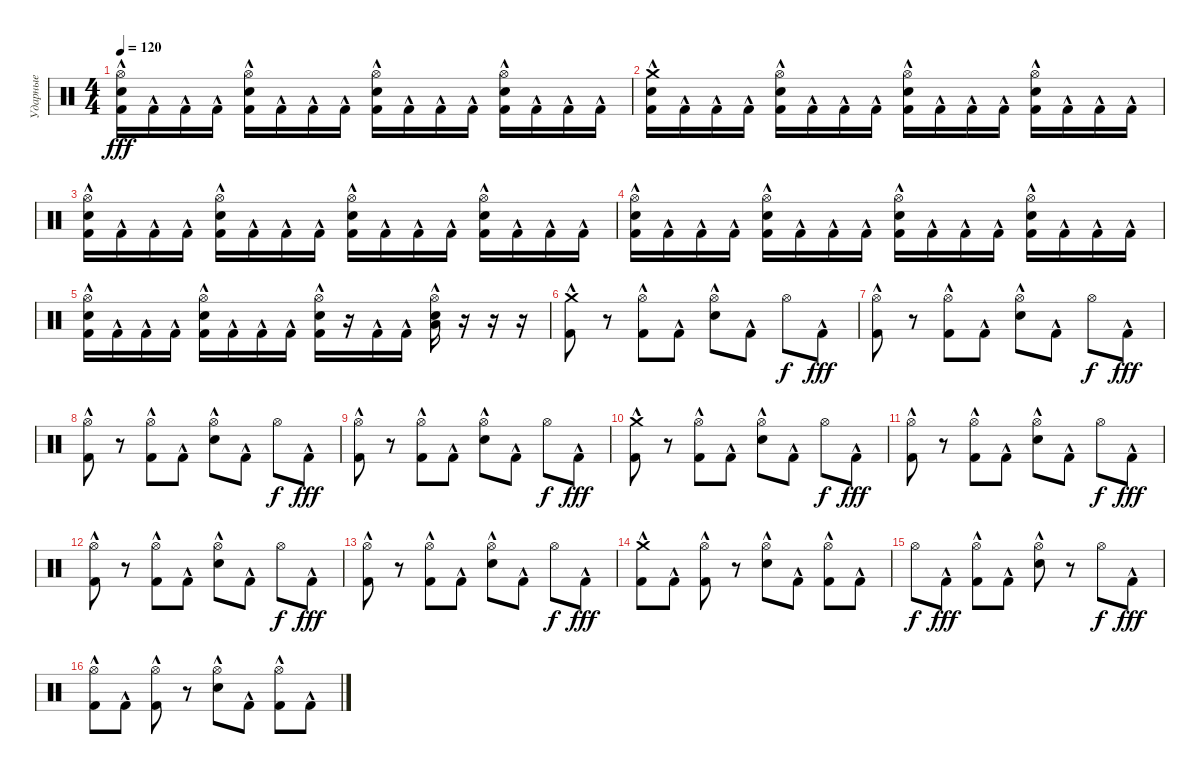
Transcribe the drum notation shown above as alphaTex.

\track ("Ударные" "Ударные") {instrument percussion}
\staff
\articulation defaults
\ts (4 4)
\tempo 120
\clef neutral
\ks c
("Hi-Hat (open)" "Snare (hit) 2"{hac} "Kick (hit) 2"{hac}).16{dy fff} "Kick (hit) 2"{hac}.16 "Kick (hit) 2"{hac}.16 "Kick (hit) 2"{hac}.16 ("Hi-Hat (open)" "Kick (hit) 2"{hac} "Snare (hit) 2"{hac}).16 "Kick (hit) 2"{hac}.16 "Kick (hit) 2"{hac}.16 "Kick (hit) 2"{hac}.16 ("Hi-Hat (open)" "Kick (hit) 2"{hac} "Snare (hit) 2"{hac}).16 "Kick (hit) 2"{hac}.16 "Kick (hit) 2"{hac}.16 "Kick (hit) 2"{hac}.16 ("Hi-Hat (open)" "Kick (hit) 2"{hac} "Snare (hit) 2"{hac}).16 "Kick (hit) 2"{hac}.16 "Kick (hit) 2"{hac}.16 "Kick (hit) 2"{hac}.16 |
("Crash medium (hit)" "Snare (hit) 2"{hac} "Kick (hit) 2"{hac}).16 "Kick (hit) 2"{hac}.16 "Kick (hit) 2"{hac}.16 "Kick (hit) 2"{hac}.16 ("Hi-Hat (open)" "Kick (hit) 2"{hac} "Snare (hit) 2"{hac}).16 "Kick (hit) 2"{hac}.16 "Kick (hit) 2"{hac}.16 "Kick (hit) 2"{hac}.16 ("Hi-Hat (open)" "Kick (hit) 2"{hac} "Snare (hit) 2"{hac}).16 "Kick (hit) 2"{hac}.16 "Kick (hit) 2"{hac}.16 "Kick (hit) 2"{hac}.16 ("Hi-Hat (open)" "Kick (hit) 2"{hac} "Snare (hit) 2"{hac}).16 "Kick (hit) 2"{hac}.16 "Kick (hit) 2"{hac}.16 "Kick (hit) 2"{hac}.16 |
("Hi-Hat (open)" "Snare (hit) 2"{hac} "Kick (hit) 2"{hac}).16 "Kick (hit) 2"{hac}.16 "Kick (hit) 2"{hac}.16 "Kick (hit) 2"{hac}.16 ("Hi-Hat (open)" "Kick (hit) 2"{hac} "Snare (hit) 2"{hac}).16 "Kick (hit) 2"{hac}.16 "Kick (hit) 2"{hac}.16 "Kick (hit) 2"{hac}.16 ("Hi-Hat (open)" "Kick (hit) 2"{hac} "Snare (hit) 2"{hac}).16 "Kick (hit) 2"{hac}.16 "Kick (hit) 2"{hac}.16 "Kick (hit) 2"{hac}.16 ("Hi-Hat (open)" "Kick (hit) 2"{hac} "Snare (hit) 2"{hac}).16 "Kick (hit) 2"{hac}.16 "Kick (hit) 2"{hac}.16 "Kick (hit) 2"{hac}.16 |
("Hi-Hat (open)" "Snare (hit) 2"{hac} "Kick (hit) 2"{hac}).16 "Kick (hit) 2"{hac}.16 "Kick (hit) 2"{hac}.16 "Kick (hit) 2"{hac}.16 ("Hi-Hat (open)" "Kick (hit) 2"{hac} "Snare (hit) 2"{hac}).16 "Kick (hit) 2"{hac}.16 "Kick (hit) 2"{hac}.16 "Kick (hit) 2"{hac}.16 ("Hi-Hat (open)" "Kick (hit) 2"{hac} "Snare (hit) 2"{hac}).16 "Kick (hit) 2"{hac}.16 "Kick (hit) 2"{hac}.16 "Kick (hit) 2"{hac}.16 ("Hi-Hat (open)" "Kick (hit) 2"{hac} "Snare (hit) 2"{hac}).16 "Kick (hit) 2"{hac}.16 "Kick (hit) 2"{hac}.16 "Kick (hit) 2"{hac}.16 |
("Hi-Hat (open)" "Snare (hit) 2"{hac} "Kick (hit) 2"{hac}).16 "Kick (hit) 2"{hac}.16 "Kick (hit) 2"{hac}.16 "Kick (hit) 2"{hac}.16 ("Hi-Hat (open)" "Kick (hit) 2"{hac} "Snare (hit) 2"{hac}).16 "Kick (hit) 2"{hac}.16 "Kick (hit) 2"{hac}.16 "Kick (hit) 2"{hac}.16 ("Hi-Hat (open)" "Kick (hit) 2"{hac} "Snare (hit) 2"{hac}).16 r.16 "Kick (hit) 2"{hac}.16 "Kick (hit) 2"{hac}.16 ("Hi-Hat (open)" "Low Floor Tom (hit)"{hac} "Snare (hit) 2"{hac}).16 r.16 r.16 r.16 |
("Crash medium (hit)" "Kick (hit) 2"{hac}).8 r.8 ("Hi-Hat (open)" "Kick (hit) 2"{hac}).8 "Kick (hit) 2"{hac}.8 ("Hi-Hat (open)" "Snare (hit) 2"{hac}).8 "Kick (hit) 2"{hac}.8 "Hi-Hat (open)".8{dy f} "Kick (hit) 2"{hac}.8{dy fff} |
("Hi-Hat (open)" "Kick (hit) 2"{hac}).8 r.8 ("Hi-Hat (open)" "Kick (hit) 2"{hac}).8 "Kick (hit) 2"{hac}.8 ("Hi-Hat (open)" "Snare (hit) 2"{hac}).8 "Kick (hit) 2"{hac}.8 "Hi-Hat (open)".8{dy f} "Kick (hit) 2"{hac}.8{dy fff} |
("Hi-Hat (open)" "Kick (hit) 2"{hac}).8 r.8 ("Hi-Hat (open)" "Kick (hit) 2"{hac}).8 "Kick (hit) 2"{hac}.8 ("Hi-Hat (open)" "Snare (hit) 2"{hac}).8 "Kick (hit) 2"{hac}.8 "Hi-Hat (open)".8{dy f} "Kick (hit) 2"{hac}.8{dy fff} |
("Hi-Hat (open)" "Kick (hit) 2"{hac}).8 r.8 ("Hi-Hat (open)" "Kick (hit) 2"{hac}).8 "Kick (hit) 2"{hac}.8 ("Hi-Hat (open)" "Snare (hit) 2"{hac}).8 "Kick (hit) 2"{hac}.8 "Hi-Hat (open)".8{dy f} "Kick (hit) 2"{hac}.8{dy fff} |
("Crash medium (hit)" "Kick (hit) 2"{hac}).8 r.8 ("Hi-Hat (open)" "Kick (hit) 2"{hac}).8 "Kick (hit) 2"{hac}.8 ("Hi-Hat (open)" "Snare (hit) 2"{hac}).8 "Kick (hit) 2"{hac}.8 "Hi-Hat (open)".8{dy f} "Kick (hit) 2"{hac}.8{dy fff} |
("Hi-Hat (open)" "Kick (hit) 2"{hac}).8 r.8 ("Hi-Hat (open)" "Kick (hit) 2"{hac}).8 "Kick (hit) 2"{hac}.8 ("Hi-Hat (open)" "Snare (hit) 2"{hac}).8 "Kick (hit) 2"{hac}.8 "Hi-Hat (open)".8{dy f} "Kick (hit) 2"{hac}.8{dy fff} |
("Hi-Hat (open)" "Kick (hit) 2"{hac}).8 r.8 ("Hi-Hat (open)" "Kick (hit) 2"{hac}).8 "Kick (hit) 2"{hac}.8 ("Hi-Hat (open)" "Snare (hit) 2"{hac}).8 "Kick (hit) 2"{hac}.8 "Hi-Hat (open)".8{dy f} "Kick (hit) 2"{hac}.8{dy fff} |
("Hi-Hat (open)" "Kick (hit) 2"{hac}).8 r.8 ("Hi-Hat (open)" "Kick (hit) 2"{hac}).8 "Kick (hit) 2"{hac}.8 ("Hi-Hat (open)" "Snare (hit) 2"{hac}).8 "Kick (hit) 2"{hac}.8 "Hi-Hat (open)".8{dy f} "Kick (hit) 2"{hac}.8{dy fff} |
("Crash medium (hit)" "Kick (hit) 2"{hac}).8 "Kick (hit) 2"{hac}.8 ("Hi-Hat (open)" "Kick (hit) 2"{hac}).8 r.8 ("Hi-Hat (open)" "Snare (hit) 2"{hac}).8 "Kick (hit) 2"{hac}.8 ("Hi-Hat (open)" "Kick (hit) 2"{hac}).8 "Kick (hit) 2"{hac}.8 |
"Hi-Hat (open)".8{dy f} "Kick (hit) 2"{hac}.8{dy fff} ("Hi-Hat (open)" "Kick (hit) 2"{hac}).8 "Kick (hit) 2"{hac}.8 ("Hi-Hat (open)" "Snare (hit) 2"{hac}).8 r.8 "Hi-Hat (open)".8{dy f} "Kick (hit) 2"{hac}.8{dy fff} |
("Hi-Hat (open)" "Kick (hit) 2"{hac}).8 "Kick (hit) 2"{hac}.8 ("Hi-Hat (open)" "Kick (hit) 2"{hac}).8 r.8 ("Hi-Hat (open)" "Snare (hit) 2"{hac}).8 "Kick (hit) 2"{hac}.8 ("Hi-Hat (open)" "Kick (hit) 2"{hac}).8 "Kick (hit) 2"{hac}.8
